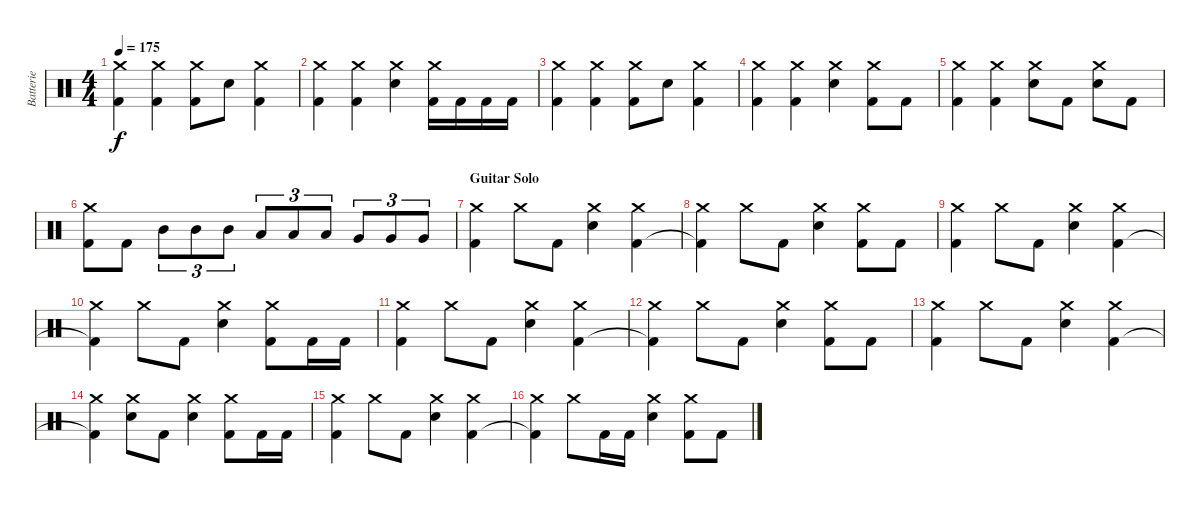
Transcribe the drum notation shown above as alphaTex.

\track ("Batterie" "Batterie") {instrument percussion}
\staff {score}
\articulation defaults
\ts (4 4)
\tempo 175
\clef neutral
\ks c
("Crash medium (hit)" "Kick (hit) 2").4{dy f} ("Crash medium (hit)" "Kick (hit) 2").4 ("Crash medium (hit)" "Kick (hit) 2").8 "Electric Snare (hit)".8 ("Crash medium (hit)" "Kick (hit) 2").4 |
("Crash medium (hit)" "Kick (hit) 2").4 ("Crash medium (hit)" "Kick (hit) 2").4 ("Crash medium (hit)" "Electric Snare (hit)").4 ("Crash medium (hit)" "Kick (hit) 2").16 "Kick (hit) 2".16 "Kick (hit) 2".16 "Kick (hit) 2".16 |
("Crash medium (hit)" "Kick (hit) 2").4 ("Crash medium (hit)" "Kick (hit) 2").4 ("Crash medium (hit)" "Kick (hit) 2").8 "Electric Snare (hit)".8 ("Crash medium (hit)" "Kick (hit) 2").4 |
("Crash medium (hit)" "Kick (hit) 2").4 ("Crash medium (hit)" "Kick (hit) 2").4 ("Crash medium (hit)" "Electric Snare (hit)").4 ("Crash medium (hit)" "Kick (hit) 2").8 "Kick (hit) 2".8 |
("Crash medium (hit)" "Kick (hit) 2").4 ("Crash medium (hit)" "Kick (hit) 2").4 ("Crash medium (hit)" "Electric Snare (hit)").8 "Kick (hit) 2".8 ("Crash medium (hit)" "Electric Snare (hit)").8 "Kick (hit) 2".8 |
("Crash medium (hit)" "Kick (hit) 2").8 "Kick (hit) 2".8 "Mid Tom (hit)".8{tu (3 2)} "Mid Tom (hit)".8{tu (3 2)} "Mid Tom (hit)".8{tu (3 2)} "Low Tom (hit)".8{tu (3 2)} "Low Tom (hit)".8{tu (3 2)} "Low Tom (hit)".8{tu (3 2)} "Very Low Tom (hit)".8{tu (3 2)} "Very Low Tom (hit)".8{tu (3 2)} "Very Low Tom (hit)".8{tu (3 2)} |
\section ("" "Guitar Solo")
("Crash medium (hit)" "Kick (hit) 2").4 "Crash medium (hit)".8 "Kick (hit) 2".8 ("Crash medium (hit)" "Electric Snare (hit)").4 ("Crash medium (hit)" "Kick (hit) 2").4 |
("Crash medium (hit)" "Kick (hit) 2"{t}).4 "Crash medium (hit)".8 "Kick (hit) 2".8 ("Crash medium (hit)" "Electric Snare (hit)").4 ("Crash medium (hit)" "Kick (hit) 2").8 "Kick (hit) 2".8 |
("Crash medium (hit)" "Kick (hit) 2").4 "Crash medium (hit)".8 "Kick (hit) 2".8 ("Crash medium (hit)" "Electric Snare (hit)").4 ("Crash medium (hit)" "Kick (hit) 2").4 |
("Crash medium (hit)" "Kick (hit) 2"{t}).4 "Crash medium (hit)".8 "Kick (hit) 2".8 ("Crash medium (hit)" "Electric Snare (hit)").4 ("Crash medium (hit)" "Kick (hit) 2").8 "Kick (hit) 2".16 "Kick (hit) 2".16 |
("Crash medium (hit)" "Kick (hit) 2").4 "Crash medium (hit)".8 "Kick (hit) 2".8 ("Crash medium (hit)" "Electric Snare (hit)").4 ("Crash medium (hit)" "Kick (hit) 2").4 |
("Crash medium (hit)" "Kick (hit) 2"{t}).4 "Crash medium (hit)".8 "Kick (hit) 2".8 ("Crash medium (hit)" "Electric Snare (hit)").4 ("Crash medium (hit)" "Kick (hit) 2").8 "Kick (hit) 2".8 |
("Crash medium (hit)" "Kick (hit) 2").4 "Crash medium (hit)".8 "Kick (hit) 2".8 ("Crash medium (hit)" "Electric Snare (hit)").4 ("Crash medium (hit)" "Kick (hit) 2").4 |
("Crash medium (hit)" "Kick (hit) 2"{t}).4 ("Crash medium (hit)" "Electric Snare (hit)").8 "Kick (hit) 2".8 ("Crash medium (hit)" "Electric Snare (hit)").4 ("Crash medium (hit)" "Kick (hit) 2").8 "Kick (hit) 2".16 "Kick (hit) 2".16 |
("Crash medium (hit)" "Kick (hit) 2").4 "Crash medium (hit)".8 "Kick (hit) 2".8 ("Crash medium (hit)" "Electric Snare (hit)").4 ("Crash medium (hit)" "Kick (hit) 2").4 |
("Crash medium (hit)" "Kick (hit) 2"{t}).4 "Crash medium (hit)".8 "Kick (hit) 2".16 "Kick (hit) 2".16 ("Crash medium (hit)" "Electric Snare (hit)").4 ("Crash medium (hit)" "Kick (hit) 2").8 "Kick (hit) 2".8
